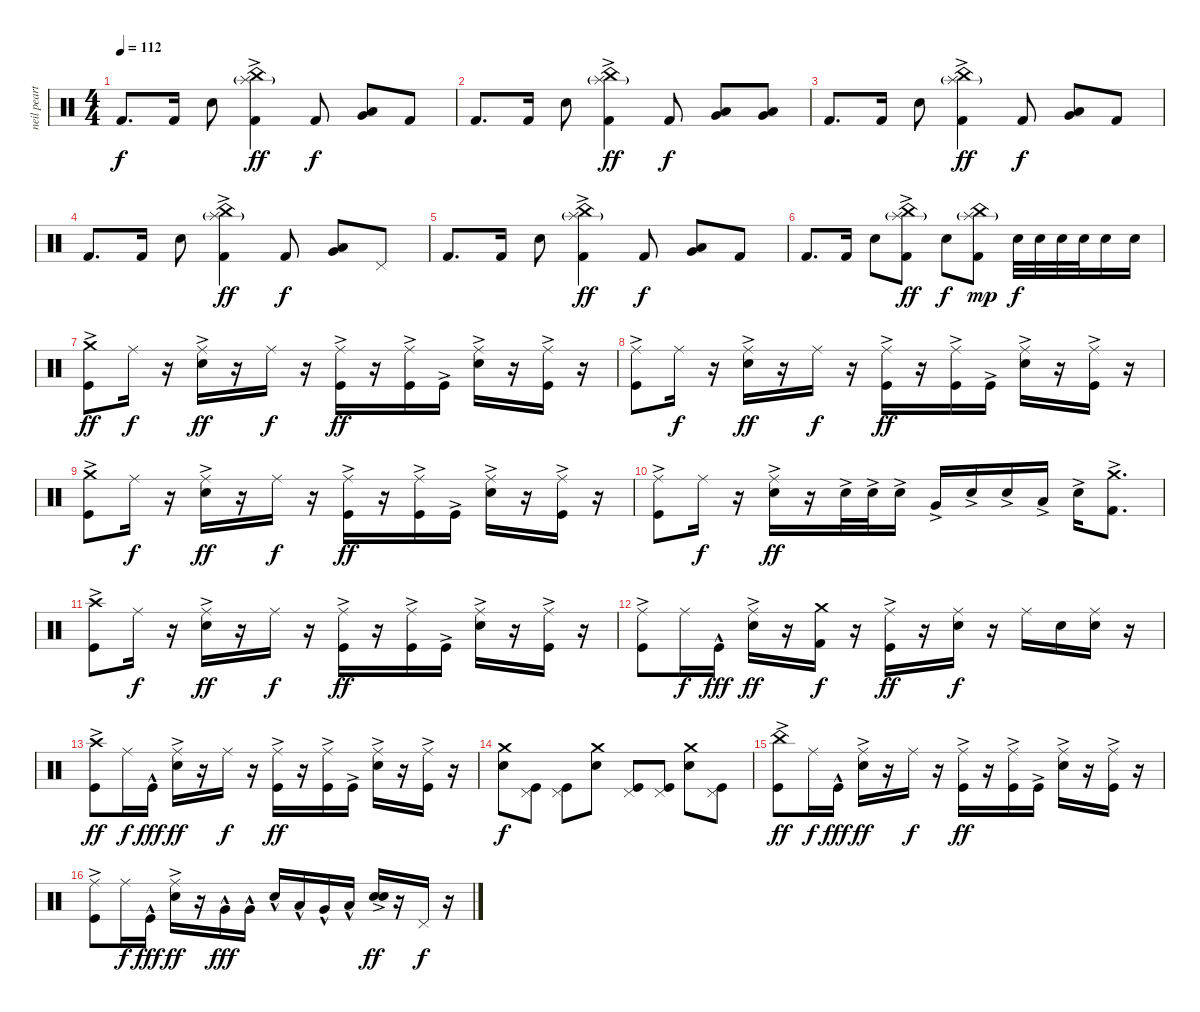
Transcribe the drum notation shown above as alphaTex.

\track ("neil peart" "neil peart") {instrument percussion}
\staff {score}
\articulation defaults
\ts (4 4)
\tempo 112
\clef neutral
\ks c "Kick (hit) 2".8{d dy f} "Kick (hit) 2".16 "Electric Snare (hit)".8
("Splash (hit)"{g} "China (hit)" "Kick (hit) 2"{ac}).4{dy ff} "Kick (hit) 2".8{dy f} ("Very Low Tom (hit)" "Low Floor Tom (hit)").8 "Kick (hit) 2".8 |
"Kick (hit) 2".8{d} "Kick (hit) 2".16 "Electric Snare (hit)".8 ("Splash (hit)"{g} "China (hit)" "Kick (hit) 2"{ac}).4{dy ff} "Kick (hit) 2".8{dy f} ("Low Tom (hit)" "Very Low Tom (hit)").8 ("Very Low Tom (hit)" "Low Floor Tom (hit)").8 |
"Kick (hit) 2".8{d} "Kick (hit) 2".16 "Electric Snare (hit)".8 ("Splash (hit)"{g} "China (hit)" "Kick (hit) 2"{ac}).4{dy ff} "Kick (hit) 2".8{dy f} ("Very Low Tom (hit)" "Low Floor Tom (hit)").8 "Kick (hit) 2".8 |
"Kick (hit) 2".8{d} "Kick (hit) 2".16 "Electric Snare (hit)".8 ("Splash (hit)"{g} "China (hit)" "Kick (hit) 2"{ac}).4{dy ff} "Kick (hit) 2".8{dy f} ("Very Low Tom (hit)" "Low Floor Tom (hit)").8 "Pedal Hi-Hat (hit)".8 |
"Kick (hit) 2".8{d} "Kick (hit) 2".16 "Electric Snare (hit)".8 ("Splash (hit)"{g} "China (hit)" "Kick (hit) 2"{ac}).4{dy ff} "Kick (hit) 2".8{dy f} ("Very Low Tom (hit)" "Low Floor Tom (hit)").8 "Kick (hit) 2".8 |
"Kick (hit) 2".8{d} "Kick (hit) 2".16 "Electric Snare (hit)".8 ("Splash (hit)"{g} "China (hit)" "Kick (hit) 2"{ac}).8{dy ff} "Electric Snare (hit)".8{dy f} ("Splash (hit)"{g} "China (hit)" "Kick (hit) 2").8{dy mp} "Electric Snare (hit)".32{dy f} "Electric Snare (hit)".32 "Electric Snare (hit)".32 "Electric Snare (hit)".32 "Electric Snare (hit)".16 "Electric Snare (hit)".16 |
("Crash medium (hit)" "Kick (hit)"{ac}).8{dy ff} "Ride (middle)".16{dy f} r.16 ("Ride (middle)" "Electric Snare (hit)"{ac}).16{dy ff} r.16 "Ride (middle)".16{dy f} r.16 ("Ride (middle)" "Kick (hit)"{ac}).16{dy ff} r.16 ("Ride (middle)" "Kick (hit)"{ac}).16 "Kick (hit)"{ac}.16 ("Ride (middle)" "Electric Snare (hit)"{ac}).16 r.16 ("Ride (middle)" "Kick (hit)"{ac}).16 r.16 |
("Ride (middle)" "Kick (hit)"{ac}).8 "Ride (middle)".16{dy f} r.16 ("Ride (middle)" "Electric Snare (hit)"{ac}).16{dy ff} r.16 "Ride (middle)".16{dy f} r.16 ("Ride (middle)" "Kick (hit)"{ac}).16{dy ff} r.16 ("Ride (middle)" "Kick (hit)"{ac}).16 "Kick (hit)"{ac}.16 ("Ride (middle)" "Electric Snare (hit)"{ac}).16 r.16 ("Ride (middle)" "Kick (hit)"{ac}).16 r.16 |
("Crash medium (hit)" "Kick (hit)"{ac}).8 "Ride (middle)".16{dy f} r.16 ("Ride (middle)" "Electric Snare (hit)"{ac}).16{dy ff} r.16 "Ride (middle)".16{dy f} r.16 ("Ride (middle)" "Kick (hit)"{ac}).16{dy ff} r.16 ("Ride (middle)" "Kick (hit)"{ac}).16 "Kick (hit)"{ac}.16 ("Ride (middle)" "Electric Snare (hit)"{ac}).16 r.16 ("Ride (middle)" "Kick (hit)"{ac}).16 r.16 |
("Ride (middle)" "Kick (hit)"{ac}).8 "Ride (middle)".16{dy f} r.16 ("Ride (middle)" "Electric Snare (hit)"{ac}).16{dy ff} r.16 "Electric Snare (hit)"{ac}.32 "Electric Snare (hit)"{ac}.32 "Electric Snare (hit)"{ac}.16 "Very Low Tom (hit)"{ac}.16 "Electric Snare (hit)"{ac}.16 "Electric Snare (hit)"{ac}.16 "Low Floor Tom (hit)"{ac}.16 "Electric Snare (hit)"{ac}.16 ("Crash medium (hit)"{ac} "Kick (hit) 2"{ac}).8{d} |
("Crash high (hit)" "Kick (hit)"{ac}).8 "Ride (middle)".16{dy f} r.16 ("Ride (middle)" "Electric Snare (hit)"{ac}).16{dy ff} r.16 "Ride (middle)".16{dy f} r.16 ("Ride (middle)" "Kick (hit)"{ac}).16{dy ff} r.16 ("Ride (middle)" "Kick (hit)"{ac}).16 "Kick (hit)"{ac}.16 ("Ride (middle)" "Electric Snare (hit)"{ac}).16 r.16 ("Ride (middle)" "Kick (hit)"{ac}).16 r.16 |
("Ride (middle)" "Kick (hit)"{ac}).8 "Ride (middle)".16{dy f} "Kick (hit)"{hac}.16{dy fff} ("Ride (middle)" "Electric Snare (hit)"{ac}).16{dy ff} r.16 ("Crash medium (hit)" "Kick (hit) 2").16{dy f} r.16 ("Ride (middle)" "Kick (hit)"{ac}).16{dy ff} r.16 ("Ride (middle)" "Electric Snare (hit)").16{dy f} r.16 "Ride (middle)".16 "Electric Snare (hit)".16 ("Ride (middle)" "Electric Snare (hit)").16 r.16 |
("Crash high (hit)" "Kick (hit)"{ac}).8{dy ff} "Ride (middle)".16{dy f} "Kick (hit)"{hac}.16{dy fff} ("Ride (middle)" "Electric Snare (hit)"{ac}).16{dy ff} r.16 "Ride (middle)".16{dy f} r.16 ("Ride (middle)" "Kick (hit)"{ac}).16{dy ff} r.16 ("Ride (middle)" "Kick (hit)"{ac}).16 "Kick (hit)"{ac}.16 ("Ride (middle)" "Electric Snare (hit)"{ac}).16 r.16 ("Ride (middle)" "Kick (hit)"{ac}).16 r.16 |
("Crash medium (hit)" "Electric Snare (hit)").8{dy f} ("Pedal Hi-Hat (hit)" "Kick (hit)").8 ("Pedal Hi-Hat (hit)" "Kick (hit)").8 ("Crash medium (hit)" "Electric Snare (hit)").8 ("Pedal Hi-Hat (hit)" "Kick (hit)").8 ("Pedal Hi-Hat (hit)" "Kick (hit)").8 ("Crash medium (hit)" "Electric Snare (hit)").8 ("Pedal Hi-Hat (hit)" "Kick (hit)").8 |
("China (hit)" "Kick (hit)"{ac}).8{dy ff} "Ride (middle)".16{dy f} "Kick (hit)"{hac}.16{dy fff} ("Ride (middle)" "Electric Snare (hit)"{ac}).16{dy ff} r.16 "Ride (middle)".16{dy f} r.16 ("Ride (middle)" "Kick (hit)"{ac}).16{dy ff} r.16 ("Ride (middle)" "Kick (hit)"{ac}).16 "Kick (hit)"{ac}.16 ("Ride (middle)" "Electric Snare (hit)"{ac}).16 r.16 ("Ride (middle)" "Kick (hit)"{ac}).16 r.16 |
("Ride (middle)" "Kick (hit)"{ac}).8 "Ride (middle)".16{dy f} "Kick (hit)"{hac}.16{dy fff} ("Ride (middle)" "Electric Snare (hit)"{ac}).16{dy ff} r.16 "Very Low Tom (hit)"{hac}.16{dy fff} "Very Low Tom (hit)"{hac}.16 "Electric Snare (hit)"{hac}.16 "Low Tom (hit)"{hac}.16 "Very Low Tom (hit)"{hac}.16 "Low Floor Tom (hit)"{hac}.16 ("Electric Snare (hit)" "Electric Snare (hit)"{ac}).16{dy ff} r.16 "Pedal Hi-Hat (hit)".16{dy f} r.16
